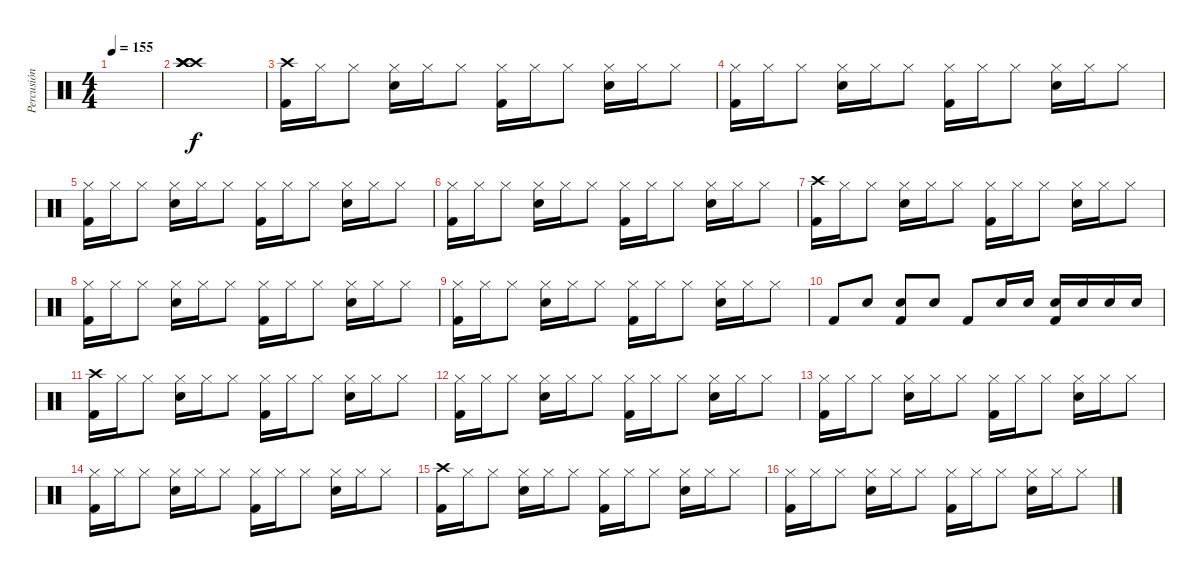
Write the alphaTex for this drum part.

\track ("Percusión" "Percusión") {instrument percussion}
\staff {score}
\articulation defaults
\ts (4 4)
\tempo 155
\clef neutral
\ks c
|
("Crash high (hit)" "Crash high (hit)" "Crash high (hit)" "Crash high (hit)").1{volume 15} |
("Crash high (hit)" "Kick (hit) 2").16 "Hi-Hat (closed)".16 "Hi-Hat (closed)".8 ("Hi-Hat (closed)" "Electric Snare (hit)").16 "Hi-Hat (closed)".16 "Hi-Hat (closed)".8 ("Hi-Hat (closed)" "Kick (hit) 2").16 "Hi-Hat (closed)".16 "Hi-Hat (closed)".8 ("Hi-Hat (closed)" "Electric Snare (hit)").16 "Hi-Hat (closed)".16 "Hi-Hat (closed)".8 |
("Hi-Hat (closed)" "Kick (hit) 2").16 "Hi-Hat (closed)".16 "Hi-Hat (closed)".8 ("Hi-Hat (closed)" "Electric Snare (hit)").16 "Hi-Hat (closed)".16 "Hi-Hat (closed)".8 ("Hi-Hat (closed)" "Kick (hit) 2").16 "Hi-Hat (closed)".16 "Hi-Hat (closed)".8 ("Hi-Hat (closed)" "Electric Snare (hit)").16 "Hi-Hat (closed)".16 "Hi-Hat (closed)".8 |
("Hi-Hat (closed)" "Kick (hit) 2").16 "Hi-Hat (closed)".16 "Hi-Hat (closed)".8 ("Hi-Hat (closed)" "Electric Snare (hit)").16 "Hi-Hat (closed)".16 "Hi-Hat (closed)".8 ("Hi-Hat (closed)" "Kick (hit) 2").16 "Hi-Hat (closed)".16 "Hi-Hat (closed)".8 ("Hi-Hat (closed)" "Electric Snare (hit)").16 "Hi-Hat (closed)".16 "Hi-Hat (closed)".8 |
("Hi-Hat (closed)" "Kick (hit) 2").16 "Hi-Hat (closed)".16 "Hi-Hat (closed)".8 ("Hi-Hat (closed)" "Electric Snare (hit)").16 "Hi-Hat (closed)".16 "Hi-Hat (closed)".8 ("Hi-Hat (closed)" "Kick (hit) 2").16 "Hi-Hat (closed)".16 "Hi-Hat (closed)".8 ("Hi-Hat (closed)" "Electric Snare (hit)").16 "Hi-Hat (closed)".16 "Hi-Hat (closed)".8 |
("Crash high (hit)" "Kick (hit) 2").16 "Hi-Hat (closed)".16 "Hi-Hat (closed)".8 ("Hi-Hat (closed)" "Electric Snare (hit)").16 "Hi-Hat (closed)".16 "Hi-Hat (closed)".8 ("Hi-Hat (closed)" "Kick (hit) 2").16 "Hi-Hat (closed)".16 "Hi-Hat (closed)".8 ("Hi-Hat (closed)" "Electric Snare (hit)").16 "Hi-Hat (closed)".16 "Hi-Hat (closed)".8 |
("Hi-Hat (closed)" "Kick (hit) 2").16 "Hi-Hat (closed)".16 "Hi-Hat (closed)".8 ("Hi-Hat (closed)" "Electric Snare (hit)").16 "Hi-Hat (closed)".16 "Hi-Hat (closed)".8 ("Hi-Hat (closed)" "Kick (hit) 2").16 "Hi-Hat (closed)".16 "Hi-Hat (closed)".8 ("Hi-Hat (closed)" "Electric Snare (hit)").16 "Hi-Hat (closed)".16 "Hi-Hat (closed)".8 |
("Hi-Hat (closed)" "Kick (hit) 2").16 "Hi-Hat (closed)".16 "Hi-Hat (closed)".8 ("Hi-Hat (closed)" "Electric Snare (hit)").16 "Hi-Hat (closed)".16 "Hi-Hat (closed)".8 ("Hi-Hat (closed)" "Kick (hit) 2").16 "Hi-Hat (closed)".16 "Hi-Hat (closed)".8 ("Hi-Hat (closed)" "Electric Snare (hit)").16 "Hi-Hat (closed)".16 "Hi-Hat (closed)".8 |
"Kick (hit) 2".8 "Electric Snare (hit)".8 ("Electric Snare (hit)" "Kick (hit) 2").8 "Electric Snare (hit)".8 "Kick (hit) 2".8 "Electric Snare (hit)".16 "Electric Snare (hit)".16 ("Electric Snare (hit)" "Kick (hit) 2").16 "Electric Snare (hit)".16 "Electric Snare (hit)".16 "Electric Snare (hit)".16 |
("Crash high (hit)" "Kick (hit) 2").16 "Hi-Hat (closed)".16 "Hi-Hat (closed)".8 ("Hi-Hat (closed)" "Electric Snare (hit)").16 "Hi-Hat (closed)".16 "Hi-Hat (closed)".8 ("Hi-Hat (closed)" "Kick (hit) 2").16 "Hi-Hat (closed)".16 "Hi-Hat (closed)".8 ("Hi-Hat (closed)" "Electric Snare (hit)").16 "Hi-Hat (closed)".16 "Hi-Hat (closed)".8 |
("Hi-Hat (closed)" "Kick (hit) 2").16 "Hi-Hat (closed)".16 "Hi-Hat (closed)".8 ("Hi-Hat (closed)" "Electric Snare (hit)").16 "Hi-Hat (closed)".16 "Hi-Hat (closed)".8 ("Hi-Hat (closed)" "Kick (hit) 2").16 "Hi-Hat (closed)".16 "Hi-Hat (closed)".8 ("Hi-Hat (closed)" "Electric Snare (hit)").16 "Hi-Hat (closed)".16 "Hi-Hat (closed)".8 |
("Hi-Hat (closed)" "Kick (hit) 2").16 "Hi-Hat (closed)".16 "Hi-Hat (closed)".8 ("Hi-Hat (closed)" "Electric Snare (hit)").16 "Hi-Hat (closed)".16 "Hi-Hat (closed)".8 ("Hi-Hat (closed)" "Kick (hit) 2").16 "Hi-Hat (closed)".16 "Hi-Hat (closed)".8 ("Hi-Hat (closed)" "Electric Snare (hit)").16 "Hi-Hat (closed)".16 "Hi-Hat (closed)".8 |
("Hi-Hat (closed)" "Kick (hit) 2").16 "Hi-Hat (closed)".16 "Hi-Hat (closed)".8 ("Hi-Hat (closed)" "Electric Snare (hit)").16 "Hi-Hat (closed)".16 "Hi-Hat (closed)".8 ("Hi-Hat (closed)" "Kick (hit) 2").16 "Hi-Hat (closed)".16 "Hi-Hat (closed)".8 ("Hi-Hat (closed)" "Electric Snare (hit)").16 "Hi-Hat (closed)".16 "Hi-Hat (closed)".8 |
("Crash high (hit)" "Kick (hit) 2").16 "Hi-Hat (closed)".16 "Hi-Hat (closed)".8 ("Hi-Hat (closed)" "Electric Snare (hit)").16 "Hi-Hat (closed)".16 "Hi-Hat (closed)".8 ("Hi-Hat (closed)" "Kick (hit) 2").16 "Hi-Hat (closed)".16 "Hi-Hat (closed)".8 ("Hi-Hat (closed)" "Electric Snare (hit)").16 "Hi-Hat (closed)".16 "Hi-Hat (closed)".8 |
("Hi-Hat (closed)" "Kick (hit) 2").16 "Hi-Hat (closed)".16 "Hi-Hat (closed)".8 ("Hi-Hat (closed)" "Electric Snare (hit)").16 "Hi-Hat (closed)".16 "Hi-Hat (closed)".8 ("Hi-Hat (closed)" "Kick (hit) 2").16 "Hi-Hat (closed)".16 "Hi-Hat (closed)".8 ("Hi-Hat (closed)" "Electric Snare (hit)").16 "Hi-Hat (closed)".16 "Hi-Hat (closed)".8
